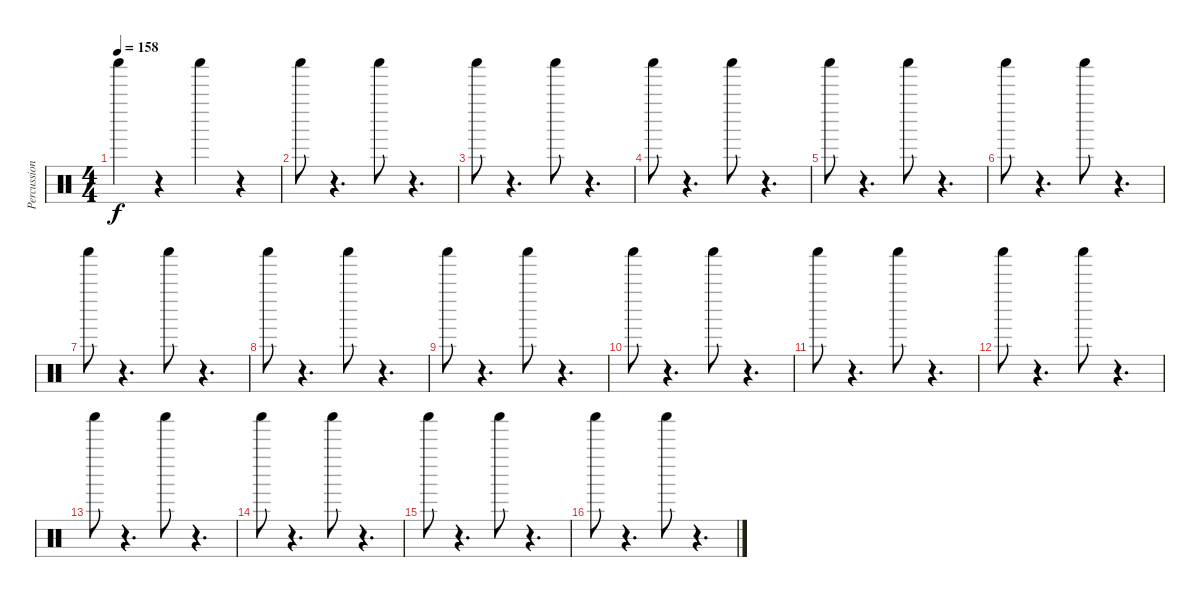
\track ("Percussions" "Percussion") {instrument percussion}
\staff {score}
\articulation defaults
\ts (4 4)
\tempo 158
\clef neutral
\ks c "Shaker (hit)".4{dy f}
r.4 "Shaker (hit)".4 r.4 |
"Shaker (hit)".8 r.4{d} "Shaker (hit)".8 r.4{d} |
"Shaker (hit)".8 r.4{d} "Shaker (hit)".8 r.4{d} |
"Shaker (hit)".8 r.4{d} "Shaker (hit)".8 r.4{d} |
"Shaker (hit)".8 r.4{d} "Shaker (hit)".8 r.4{d} |
"Shaker (hit)".8 r.4{d} "Shaker (hit)".8 r.4{d} |
"Shaker (hit)".8 r.4{d} "Shaker (hit)".8 r.4{d} |
"Shaker (hit)".8 r.4{d} "Shaker (hit)".8 r.4{d} |
"Shaker (hit)".8 r.4{d} "Shaker (hit)".8 r.4{d} |
"Shaker (hit)".8 r.4{d} "Shaker (hit)".8 r.4{d} |
"Shaker (hit)".8 r.4{d} "Shaker (hit)".8 r.4{d} |
"Shaker (hit)".8 r.4{d} "Shaker (hit)".8 r.4{d} |
"Shaker (hit)".8 r.4{d} "Shaker (hit)".8 r.4{d} |
"Shaker (hit)".8 r.4{d} "Shaker (hit)".8 r.4{d} |
"Shaker (hit)".8 r.4{d} "Shaker (hit)".8 r.4{d} |
"Shaker (hit)".8 r.4{d} "Shaker (hit)".8 r.4{d}
